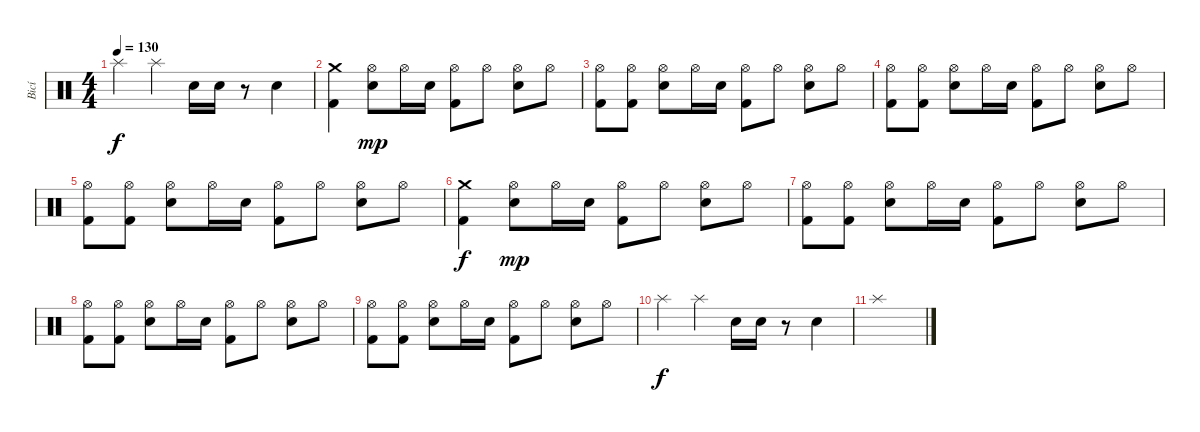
\track ("Bicí" "Bicí") {instrument percussion}
\staff {score}
\articulation defaults
\ts (4 4)
\tempo 130
\clef neutral
\ks c "Splash (hit)".4{dy f} "Splash (hit)".4 "Electric Snare (hit)".16 "Electric Snare (hit)".16
r.8 "Electric Snare (hit)".4 |
("Crash medium (hit)" "Kick (hit) 2").4 ("Hi-Hat (open)" "Electric Snare (hit)").8{dy mp} "Hi-Hat (open)".16 "Electric Snare (hit)".16 ("Hi-Hat (open)" "Kick (hit) 2").8 "Hi-Hat (open)".8 ("Hi-Hat (open)" "Electric Snare (hit)").8 "Hi-Hat (open)".8 |
("Hi-Hat (open)" "Kick (hit) 2").8 ("Hi-Hat (open)" "Kick (hit) 2").8 ("Hi-Hat (open)" "Electric Snare (hit)").8 "Hi-Hat (open)".16 "Electric Snare (hit)".16 ("Hi-Hat (open)" "Kick (hit) 2").8 "Hi-Hat (open)".8 ("Hi-Hat (open)" "Electric Snare (hit)").8 "Hi-Hat (open)".8 |
("Hi-Hat (open)" "Kick (hit) 2").8 ("Hi-Hat (open)" "Kick (hit) 2").8 ("Hi-Hat (open)" "Electric Snare (hit)").8 "Hi-Hat (open)".16 "Electric Snare (hit)".16 ("Hi-Hat (open)" "Kick (hit) 2").8 "Hi-Hat (open)".8 ("Hi-Hat (open)" "Electric Snare (hit)").8 "Hi-Hat (open)".8 |
("Hi-Hat (open)" "Kick (hit) 2").8 ("Hi-Hat (open)" "Kick (hit) 2").8 ("Hi-Hat (open)" "Electric Snare (hit)").8 "Hi-Hat (open)".16 "Electric Snare (hit)".16 ("Hi-Hat (open)" "Kick (hit) 2").8 "Hi-Hat (open)".8 ("Hi-Hat (open)" "Electric Snare (hit)").8 "Hi-Hat (open)".8 |
("Crash medium (hit)" "Kick (hit) 2").4{dy f} ("Hi-Hat (open)" "Electric Snare (hit)").8{dy mp} "Hi-Hat (open)".16 "Electric Snare (hit)".16 ("Hi-Hat (open)" "Kick (hit) 2").8 "Hi-Hat (open)".8 ("Hi-Hat (open)" "Electric Snare (hit)").8 "Hi-Hat (open)".8 |
("Hi-Hat (open)" "Kick (hit) 2").8 ("Hi-Hat (open)" "Kick (hit) 2").8 ("Hi-Hat (open)" "Electric Snare (hit)").8 "Hi-Hat (open)".16 "Electric Snare (hit)".16 ("Hi-Hat (open)" "Kick (hit) 2").8 "Hi-Hat (open)".8 ("Hi-Hat (open)" "Electric Snare (hit)").8 "Hi-Hat (open)".8 |
("Hi-Hat (open)" "Kick (hit) 2").8 ("Hi-Hat (open)" "Kick (hit) 2").8 ("Hi-Hat (open)" "Electric Snare (hit)").8 "Hi-Hat (open)".16 "Electric Snare (hit)".16 ("Hi-Hat (open)" "Kick (hit) 2").8 "Hi-Hat (open)".8 ("Hi-Hat (open)" "Electric Snare (hit)").8 "Hi-Hat (open)".8 |
("Hi-Hat (open)" "Kick (hit) 2").8 ("Hi-Hat (open)" "Kick (hit) 2").8 ("Hi-Hat (open)" "Electric Snare (hit)").8 "Hi-Hat (open)".16 "Electric Snare (hit)".16 ("Hi-Hat (open)" "Kick (hit) 2").8 "Hi-Hat (open)".8 ("Hi-Hat (open)" "Electric Snare (hit)").8 "Hi-Hat (open)".8 |
"Splash (hit)".4{dy f} "Splash (hit)".4 "Electric Snare (hit)".16 "Electric Snare (hit)".16 r.8 "Electric Snare (hit)".4 |
"Splash (hit)".1
